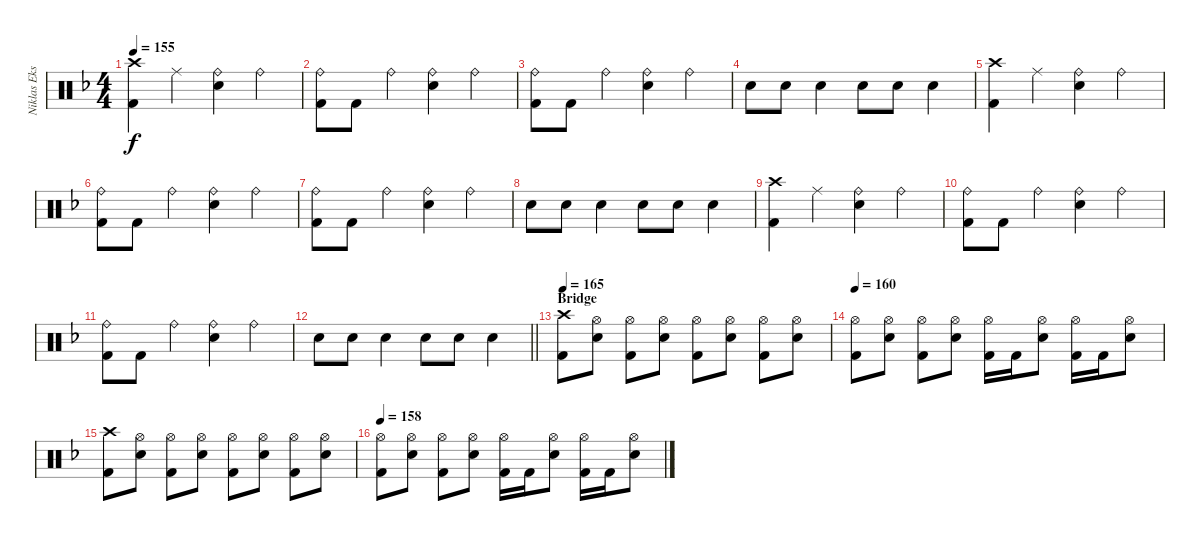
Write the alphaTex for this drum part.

\track ("Niklas Ekstrand" "Niklas Eks") {instrument percussion}
\staff {score}
\articulation defaults
\ts (4 4)
\tempo 155
\clef neutral
\ks dminor
("Crash high (hit)" "Kick (hit) 2").4{dy f} "Ride (middle)".4 ("Ride (bell)" "Snare (hit) 2").4 "Ride (bell)".4 |
("Ride (bell)" "Kick (hit) 2").8 "Kick (hit) 2".8 "Ride (bell)".4 ("Ride (bell)" "Snare (hit) 2").4 "Ride (bell)".4 |
("Ride (bell)" "Kick (hit) 2").8 "Kick (hit) 2".8 "Ride (bell)".4 ("Ride (bell)" "Snare (hit) 2").4 "Ride (bell)".4 |
"Snare (hit) 2".8 "Snare (hit) 2".8 "Snare (hit) 2".4 "Snare (hit) 2".8 "Snare (hit) 2".8 "Snare (hit) 2".4 |
("Crash high (hit)" "Kick (hit) 2").4 "Ride (middle)".4 ("Ride (bell)" "Snare (hit) 2").4 "Ride (bell)".4 |
("Ride (bell)" "Kick (hit) 2").8 "Kick (hit) 2".8 "Ride (bell)".4 ("Ride (bell)" "Snare (hit) 2").4 "Ride (bell)".4 |
("Ride (bell)" "Kick (hit) 2").8 "Kick (hit) 2".8 "Ride (bell)".4 ("Ride (bell)" "Snare (hit) 2").4 "Ride (bell)".4 |
"Snare (hit) 2".8 "Snare (hit) 2".8 "Snare (hit) 2".4 "Snare (hit) 2".8 "Snare (hit) 2".8 "Snare (hit) 2".4 |
("Crash high (hit)" "Kick (hit) 2").4 "Ride (middle)".4 ("Ride (bell)" "Snare (hit) 2").4 "Ride (bell)".4 |
("Ride (bell)" "Kick (hit) 2").8 "Kick (hit) 2".8 "Ride (bell)".4 ("Ride (bell)" "Snare (hit) 2").4 "Ride (bell)".4 |
("Ride (bell)" "Kick (hit) 2").8 "Kick (hit) 2".8 "Ride (bell)".4 ("Ride (bell)" "Snare (hit) 2").4 "Ride (bell)".4 |
\barLineRight lightlight "Snare (hit) 2".8 "Snare (hit) 2".8 "Snare (hit) 2".4 "Snare (hit) 2".8 "Snare (hit) 2".8 "Snare (hit) 2".4
|
\section ("" "Bridge")
\tempo 165
("Crash high (hit)" "Kick (hit) 2").8 ("Hi-Hat (open)" "Snare (hit) 2").8 ("Hi-Hat (open)" "Kick (hit) 2").8 ("Hi-Hat (open)" "Snare (hit) 2").8 ("Hi-Hat (open)" "Kick (hit) 2").8 ("Hi-Hat (open)" "Snare (hit) 2").8 ("Hi-Hat (open)" "Kick (hit) 2").8 ("Hi-Hat (open)" "Snare (hit) 2").8 |
\tempo 160
("Hi-Hat (open)" "Kick (hit) 2").8 ("Hi-Hat (open)" "Snare (hit) 2").8 ("Hi-Hat (open)" "Kick (hit) 2").8 ("Hi-Hat (open)" "Snare (hit) 2").8 ("Hi-Hat (open)" "Kick (hit) 2").16 "Kick (hit) 2".16 ("Hi-Hat (open)" "Snare (hit) 2").8 ("Hi-Hat (open)" "Kick (hit) 2").16 "Kick (hit) 2".16 ("Hi-Hat (open)" "Snare (hit) 2").8 |
("Crash high (hit)" "Kick (hit) 2").8 ("Hi-Hat (open)" "Snare (hit) 2").8 ("Hi-Hat (open)" "Kick (hit) 2").8 ("Hi-Hat (open)" "Snare (hit) 2").8 ("Hi-Hat (open)" "Kick (hit) 2").8 ("Hi-Hat (open)" "Snare (hit) 2").8 ("Hi-Hat (open)" "Kick (hit) 2").8 ("Hi-Hat (open)" "Snare (hit) 2").8 |
\tempo 158
("Hi-Hat (open)" "Kick (hit) 2").8 ("Hi-Hat (open)" "Snare (hit) 2").8 ("Hi-Hat (open)" "Kick (hit) 2").8 ("Hi-Hat (open)" "Snare (hit) 2").8 ("Hi-Hat (open)" "Kick (hit) 2").16 "Kick (hit) 2".16 ("Hi-Hat (open)" "Snare (hit) 2").8 ("Hi-Hat (open)" "Kick (hit) 2").16 "Kick (hit) 2".16 ("Hi-Hat (open)" "Snare (hit) 2").8
